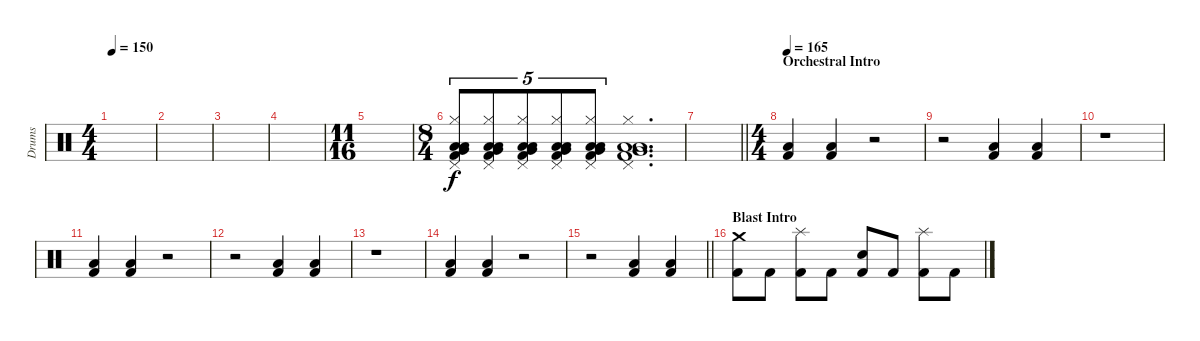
\track ("Drums" "Drums") {instrument percussion}
\staff {score}
\articulation defaults
\ts (4 4)
\tempo 150
\clef neutral
\ks c
|
|
|
|
\ts (11 16)
|
\ts (8 4)
("Low Tom (hit)" "Pedal Hi-Hat (hit)" "Very Low Tom (hit)" "Hi-Hat (closed)" "Low Floor Tom (hit)" "Kick (hit) 2").8{tu (5 4)} ("Low Tom (hit)" "Pedal Hi-Hat (hit)" "Very Low Tom (hit)" "Hi-Hat (closed)" "Low Floor Tom (hit)" "Kick (hit) 2").8{tu (5 4)} ("Low Tom (hit)" "Pedal Hi-Hat (hit)" "Very Low Tom (hit)" "Hi-Hat (closed)" "Low Floor Tom (hit)" "Kick (hit) 2").8{tu (5 4)} ("Low Tom (hit)" "Pedal Hi-Hat (hit)" "Very Low Tom (hit)" "Hi-Hat (closed)" "Low Floor Tom (hit)" "Kick (hit) 2").8{tu (5 4)} ("Low Tom (hit)" "Pedal Hi-Hat (hit)" "Very Low Tom (hit)" "Hi-Hat (closed)" "Low Floor Tom (hit)" "Kick (hit) 2").8{tu (5 4)} ("Low Tom (hit)" "Pedal Hi-Hat (hit)" "Very Low Tom (hit)" "Hi-Hat (closed)" "Low Floor Tom (hit)" "Kick (hit) 2").1{d} |
\barLineRight lightlight
|
\ts (4 4)
\section ("" "Orchestral Intro")
\tempo 165
("Low Floor Tom (hit)" "Kick (hit) 2").4 ("Low Floor Tom (hit)" "Kick (hit) 2").4 r.2 |
r.2 ("Low Floor Tom (hit)" "Kick (hit) 2").4 ("Low Floor Tom (hit)" "Kick (hit) 2").4 |
r.1 |
("Low Floor Tom (hit)" "Kick (hit) 2").4 ("Low Floor Tom (hit)" "Kick (hit) 2").4 r.2 |
r.2 ("Low Floor Tom (hit)" "Kick (hit) 2").4 ("Low Floor Tom (hit)" "Kick (hit) 2").4 |
r.1 |
("Low Floor Tom (hit)" "Kick (hit) 2").4 ("Low Floor Tom (hit)" "Kick (hit) 2").4 r.2 |
\barLineRight lightlight
r.2 ("Low Floor Tom (hit)" "Kick (hit) 2").4 ("Low Floor Tom (hit)" "Kick (hit) 2").4 |
\section ("" "Blast Intro")
("Crash medium (hit)" "Kick (hit) 2").8 "Kick (hit) 2".8 ("Splash (hit)" "Kick (hit) 2").8 "Kick (hit) 2".8 ("Snare (hit) 2" "Kick (hit) 2").8 "Kick (hit) 2".8 ("Splash (hit)" "Kick (hit) 2").8 "Kick (hit) 2".8
